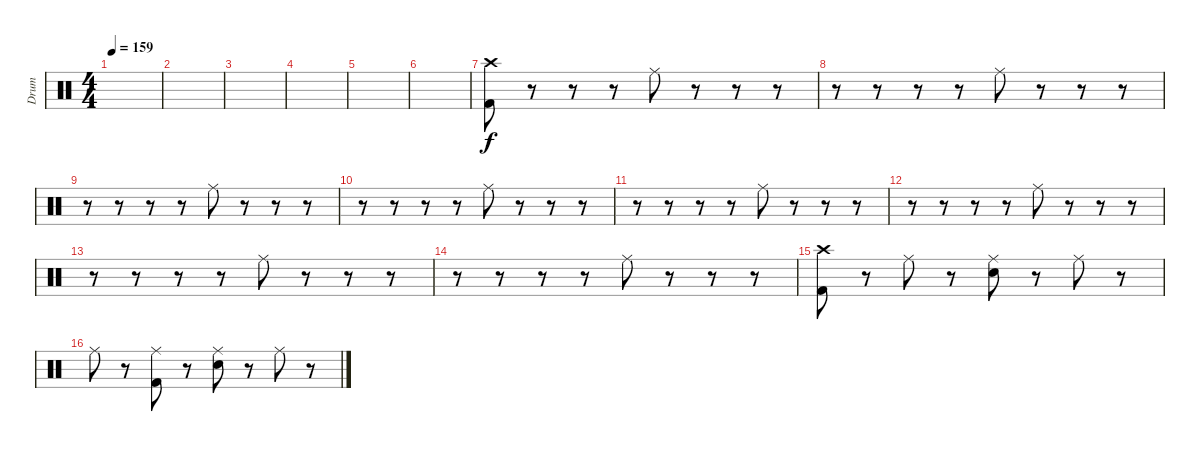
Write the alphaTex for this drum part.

\track ("Drum" "Drum") {instrument percussion}
\staff {score}
\articulation defaults
\ts (4 4)
\tempo 159
\clef neutral
\ks c
|
|
|
|
|
|
("Crash high (hit)" "Kick (hit) 2").8 r.8 r.8 r.8 "Ride (middle)".8 r.8 r.8 r.8 |
r.8 r.8 r.8 r.8 "Ride (middle)".8 r.8 r.8 r.8 |
r.8 r.8 r.8 r.8 "Ride (middle)".8 r.8 r.8 r.8 |
r.8 r.8 r.8 r.8 "Ride (middle)".8 r.8 r.8 r.8 |
r.8 r.8 r.8 r.8 "Ride (middle)".8 r.8 r.8 r.8 |
r.8 r.8 r.8 r.8 "Ride (middle)".8 r.8 r.8 r.8 |
r.8 r.8 r.8 r.8 "Ride (middle)".8 r.8 r.8 r.8 |
r.8 r.8 r.8 r.8 "Ride (middle)".8 r.8 r.8 r.8 |
("Crash high (hit)" "Kick (hit) 2").8 r.8 "Ride (middle)".8 r.8 ("Ride (middle)" "Snare (hit) 2").8 r.8 "Ride (middle)".8 r.8 |
"Ride (middle)".8 r.8 ("Ride (middle)" "Kick (hit) 2").8 r.8 ("Ride (middle)" "Snare (hit) 2").8 r.8 "Ride (middle)".8 r.8
